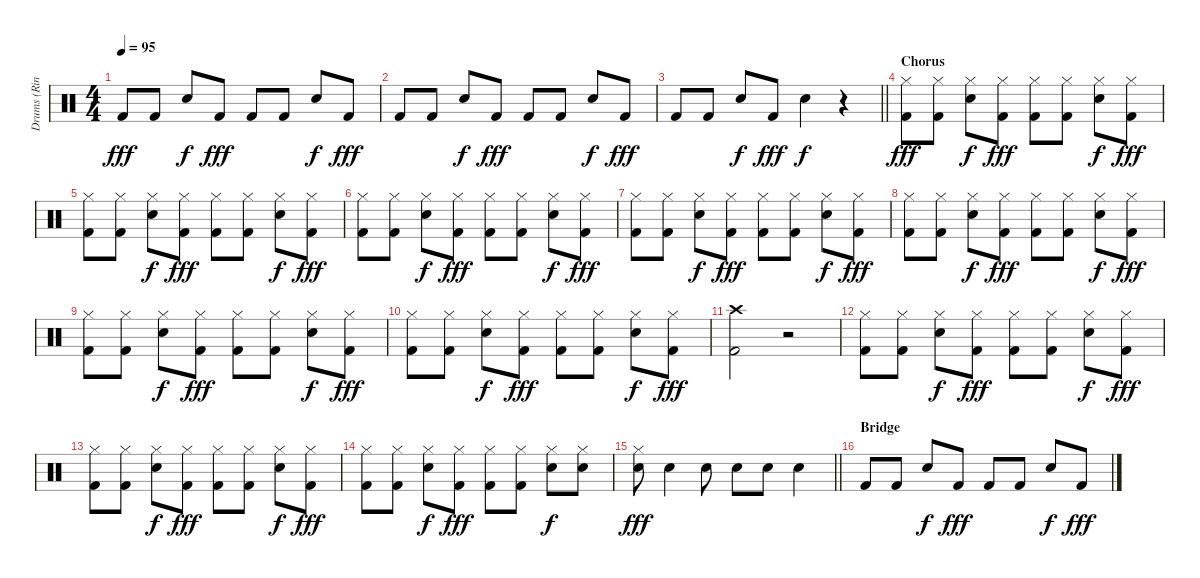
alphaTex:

\track ("Drums (Ringo Starr)" "Drums (Rin") {instrument percussion}
\staff {score}
\articulation defaults
\ts (4 4)
\tempo 95
\clef neutral
\ks c "Kick (hit) 2".8{dy fff} "Kick (hit) 2".8 "Snare (hit) 2".8{dy f} "Kick (hit) 2".8{dy fff} "Kick (hit) 2".8 "Kick (hit) 2".8 "Snare (hit) 2".8{dy f} "Kick (hit) 2".8{dy fff}
|
"Kick (hit) 2".8 "Kick (hit) 2".8 "Snare (hit) 2".8{dy f} "Kick (hit) 2".8{dy fff} "Kick (hit) 2".8 "Kick (hit) 2".8 "Snare (hit) 2".8{dy f} "Kick (hit) 2".8{dy fff} |
\barLineRight lightlight "Kick (hit) 2".8 "Kick (hit) 2".8 "Snare (hit) 2".8{dy f} "Kick (hit) 2".8{dy fff} "Snare (hit) 2".4{dy f}
r.4 |
\section ("" "Chorus")
("Hi-Hat (closed)" "Kick (hit) 2").8{dy fff} ("Hi-Hat (closed)" "Kick (hit) 2").8 ("Hi-Hat (closed)" "Snare (hit) 2").8{dy f} ("Hi-Hat (closed)" "Kick (hit) 2").8{dy fff} ("Hi-Hat (closed)" "Kick (hit) 2").8 ("Hi-Hat (closed)" "Kick (hit) 2").8 ("Hi-Hat (closed)" "Snare (hit) 2").8{dy f} ("Hi-Hat (closed)" "Kick (hit) 2").8{dy fff} |
("Hi-Hat (closed)" "Kick (hit) 2").8 ("Hi-Hat (closed)" "Kick (hit) 2").8 ("Hi-Hat (closed)" "Snare (hit) 2").8{dy f} ("Hi-Hat (closed)" "Kick (hit) 2").8{dy fff} ("Hi-Hat (closed)" "Kick (hit) 2").8 ("Hi-Hat (closed)" "Kick (hit) 2").8 ("Hi-Hat (closed)" "Snare (hit) 2").8{dy f} ("Hi-Hat (closed)" "Kick (hit) 2").8{dy fff} |
("Hi-Hat (closed)" "Kick (hit) 2").8 ("Hi-Hat (closed)" "Kick (hit) 2").8 ("Hi-Hat (closed)" "Snare (hit) 2").8{dy f} ("Hi-Hat (closed)" "Kick (hit) 2").8{dy fff} ("Hi-Hat (closed)" "Kick (hit) 2").8 ("Hi-Hat (closed)" "Kick (hit) 2").8 ("Hi-Hat (closed)" "Snare (hit) 2").8{dy f} ("Hi-Hat (closed)" "Kick (hit) 2").8{dy fff} |
("Hi-Hat (closed)" "Kick (hit) 2").8 ("Hi-Hat (closed)" "Kick (hit) 2").8 ("Hi-Hat (closed)" "Snare (hit) 2").8{dy f} ("Hi-Hat (closed)" "Kick (hit) 2").8{dy fff} ("Hi-Hat (closed)" "Kick (hit) 2").8 ("Hi-Hat (closed)" "Kick (hit) 2").8 ("Hi-Hat (closed)" "Snare (hit) 2").8{dy f} ("Hi-Hat (closed)" "Kick (hit) 2").8{dy fff} |
("Hi-Hat (closed)" "Kick (hit) 2").8 ("Hi-Hat (closed)" "Kick (hit) 2").8 ("Hi-Hat (closed)" "Snare (hit) 2").8{dy f} ("Hi-Hat (closed)" "Kick (hit) 2").8{dy fff} ("Hi-Hat (closed)" "Kick (hit) 2").8 ("Hi-Hat (closed)" "Kick (hit) 2").8 ("Hi-Hat (closed)" "Snare (hit) 2").8{dy f} ("Hi-Hat (closed)" "Kick (hit) 2").8{dy fff} |
("Hi-Hat (closed)" "Kick (hit) 2").8 ("Hi-Hat (closed)" "Kick (hit) 2").8 ("Hi-Hat (closed)" "Snare (hit) 2").8{dy f} ("Hi-Hat (closed)" "Kick (hit) 2").8{dy fff} ("Hi-Hat (closed)" "Kick (hit) 2").8 ("Hi-Hat (closed)" "Kick (hit) 2").8 ("Hi-Hat (closed)" "Snare (hit) 2").8{dy f} ("Hi-Hat (closed)" "Kick (hit) 2").8{dy fff} |
("Hi-Hat (closed)" "Kick (hit) 2").8 ("Hi-Hat (closed)" "Kick (hit) 2").8 ("Hi-Hat (closed)" "Snare (hit) 2").8{dy f} ("Hi-Hat (closed)" "Kick (hit) 2").8{dy fff} ("Hi-Hat (closed)" "Kick (hit) 2").8 ("Hi-Hat (closed)" "Kick (hit) 2").8 ("Hi-Hat (closed)" "Snare (hit) 2").8{dy f} ("Hi-Hat (closed)" "Kick (hit) 2").8{dy fff} |
("Crash high (hit)" "Kick (hit) 2").2 r.2 |
("Hi-Hat (closed)" "Kick (hit) 2").8 ("Hi-Hat (closed)" "Kick (hit) 2").8 ("Hi-Hat (closed)" "Snare (hit) 2").8{dy f} ("Hi-Hat (closed)" "Kick (hit) 2").8{dy fff} ("Hi-Hat (closed)" "Kick (hit) 2").8 ("Hi-Hat (closed)" "Kick (hit) 2").8 ("Hi-Hat (closed)" "Snare (hit) 2").8{dy f} ("Hi-Hat (closed)" "Kick (hit) 2").8{dy fff} |
("Hi-Hat (closed)" "Kick (hit) 2").8 ("Hi-Hat (closed)" "Kick (hit) 2").8 ("Hi-Hat (closed)" "Snare (hit) 2").8{dy f} ("Hi-Hat (closed)" "Kick (hit) 2").8{dy fff} ("Hi-Hat (closed)" "Kick (hit) 2").8 ("Hi-Hat (closed)" "Kick (hit) 2").8 ("Hi-Hat (closed)" "Snare (hit) 2").8{dy f} ("Hi-Hat (closed)" "Kick (hit) 2").8{dy fff} |
("Hi-Hat (closed)" "Kick (hit) 2").8 ("Hi-Hat (closed)" "Kick (hit) 2").8 ("Hi-Hat (closed)" "Snare (hit) 2").8{dy f} ("Hi-Hat (closed)" "Kick (hit) 2").8{dy fff} ("Hi-Hat (closed)" "Kick (hit) 2").8 ("Hi-Hat (closed)" "Kick (hit) 2").8 ("Hi-Hat (closed)" "Snare (hit) 2").8{dy f} ("Hi-Hat (closed)" "Snare (hit) 2").8 |
\barLineRight lightlight
("Hi-Hat (closed)" "Snare (hit) 2").8{dy fff} "Snare (hit) 2".4 "Snare (hit) 2".8 "Snare (hit) 2".8 "Snare (hit) 2".8 "Snare (hit) 2".4 |
\section ("" "Bridge")
"Kick (hit) 2".8 "Kick (hit) 2".8 "Snare (hit) 2".8{dy f} "Kick (hit) 2".8{dy fff} "Kick (hit) 2".8 "Kick (hit) 2".8 "Snare (hit) 2".8{dy f} "Kick (hit) 2".8{dy fff}
